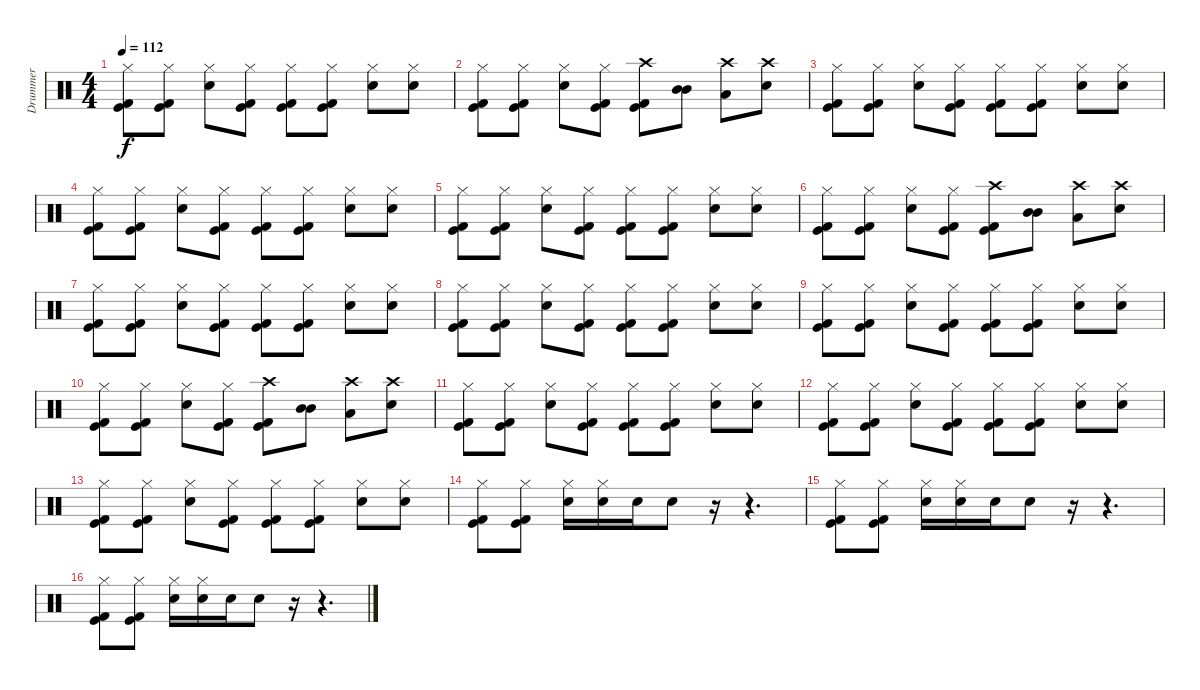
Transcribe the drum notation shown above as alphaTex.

\track ("Drummer" "Drummer") {instrument percussion}
\staff {score}
\articulation defaults
\ts (4 4)
\tempo 112
\clef neutral
\ks c
("Hi-Hat (closed)" "Kick (hit)" "Kick (hit) 2").8{dy f} ("Hi-Hat (closed)" "Kick (hit) 2" "Kick (hit)").8 ("Hi-Hat (closed)" "Snare (hit) 2").8 ("Hi-Hat (closed)" "Kick (hit)" "Kick (hit) 2").8 ("Hi-Hat (closed)" "Kick (hit) 2" "Kick (hit)").8 ("Hi-Hat (closed)" "Kick (hit)" "Kick (hit) 2").8 ("Hi-Hat (closed)" "Snare (hit) 2").8 ("Hi-Hat (closed)" "Snare (hit) 2").8 |
("Hi-Hat (closed)" "Kick (hit)" "Kick (hit) 2").8 ("Hi-Hat (closed)" "Kick (hit) 2" "Kick (hit)").8 ("Hi-Hat (closed)" "Snare (hit) 2").8 ("Hi-Hat (closed)" "Kick (hit)" "Kick (hit) 2").8 ("Crash high (hit)" "Kick (hit) 2" "Kick (hit)").8 ("Mid Tom (hit)" "Mid Tom (hit)").8 ("Crash high (hit)" "Low Tom (hit)").8 ("Crash high (hit)" "Snare (hit) 2").8 |
("Hi-Hat (closed)" "Kick (hit)" "Kick (hit) 2").8 ("Hi-Hat (closed)" "Kick (hit) 2" "Kick (hit)").8 ("Hi-Hat (closed)" "Snare (hit) 2").8 ("Hi-Hat (closed)" "Kick (hit)" "Kick (hit) 2").8 ("Hi-Hat (closed)" "Kick (hit) 2" "Kick (hit)").8 ("Hi-Hat (closed)" "Kick (hit)" "Kick (hit) 2").8 ("Hi-Hat (closed)" "Snare (hit) 2").8 ("Hi-Hat (closed)" "Snare (hit) 2").8 |
("Hi-Hat (closed)" "Kick (hit)" "Kick (hit) 2").8 ("Hi-Hat (closed)" "Kick (hit) 2" "Kick (hit)").8 ("Hi-Hat (closed)" "Snare (hit) 2").8 ("Hi-Hat (closed)" "Kick (hit)" "Kick (hit) 2").8 ("Hi-Hat (closed)" "Kick (hit) 2" "Kick (hit)").8 ("Hi-Hat (closed)" "Kick (hit)" "Kick (hit) 2").8 ("Hi-Hat (closed)" "Snare (hit) 2").8 ("Hi-Hat (closed)" "Snare (hit) 2").8 |
("Hi-Hat (closed)" "Kick (hit)" "Kick (hit) 2").8 ("Hi-Hat (closed)" "Kick (hit) 2" "Kick (hit)").8 ("Hi-Hat (closed)" "Snare (hit) 2").8 ("Hi-Hat (closed)" "Kick (hit)" "Kick (hit) 2").8 ("Hi-Hat (closed)" "Kick (hit) 2" "Kick (hit)").8 ("Hi-Hat (closed)" "Kick (hit)" "Kick (hit) 2").8 ("Hi-Hat (closed)" "Snare (hit) 2").8 ("Hi-Hat (closed)" "Snare (hit) 2").8 |
("Hi-Hat (closed)" "Kick (hit)" "Kick (hit) 2").8 ("Hi-Hat (closed)" "Kick (hit) 2" "Kick (hit)").8 ("Hi-Hat (closed)" "Snare (hit) 2").8 ("Hi-Hat (closed)" "Kick (hit)" "Kick (hit) 2").8 ("Crash high (hit)" "Kick (hit) 2" "Kick (hit)").8 ("Mid Tom (hit)" "Mid Tom (hit)").8 ("Crash high (hit)" "Low Tom (hit)").8 ("Crash high (hit)" "Snare (hit) 2").8 |
("Hi-Hat (closed)" "Kick (hit)" "Kick (hit) 2").8 ("Hi-Hat (closed)" "Kick (hit) 2" "Kick (hit)").8 ("Hi-Hat (closed)" "Snare (hit) 2").8 ("Hi-Hat (closed)" "Kick (hit)" "Kick (hit) 2").8 ("Hi-Hat (closed)" "Kick (hit) 2" "Kick (hit)").8 ("Hi-Hat (closed)" "Kick (hit)" "Kick (hit) 2").8 ("Hi-Hat (closed)" "Snare (hit) 2").8 ("Hi-Hat (closed)" "Snare (hit) 2").8 |
("Hi-Hat (closed)" "Kick (hit)" "Kick (hit) 2").8 ("Hi-Hat (closed)" "Kick (hit) 2" "Kick (hit)").8 ("Hi-Hat (closed)" "Snare (hit) 2").8 ("Hi-Hat (closed)" "Kick (hit)" "Kick (hit) 2").8 ("Hi-Hat (closed)" "Kick (hit) 2" "Kick (hit)").8 ("Hi-Hat (closed)" "Kick (hit)" "Kick (hit) 2").8 ("Hi-Hat (closed)" "Snare (hit) 2").8 ("Hi-Hat (closed)" "Snare (hit) 2").8 |
("Hi-Hat (closed)" "Kick (hit)" "Kick (hit) 2").8 ("Hi-Hat (closed)" "Kick (hit) 2" "Kick (hit)").8 ("Hi-Hat (closed)" "Snare (hit) 2").8 ("Hi-Hat (closed)" "Kick (hit)" "Kick (hit) 2").8 ("Hi-Hat (closed)" "Kick (hit) 2" "Kick (hit)").8 ("Hi-Hat (closed)" "Kick (hit)" "Kick (hit) 2").8 ("Hi-Hat (closed)" "Snare (hit) 2").8 ("Hi-Hat (closed)" "Snare (hit) 2").8 |
("Hi-Hat (closed)" "Kick (hit)" "Kick (hit) 2").8 ("Hi-Hat (closed)" "Kick (hit) 2" "Kick (hit)").8 ("Hi-Hat (closed)" "Snare (hit) 2").8 ("Hi-Hat (closed)" "Kick (hit)" "Kick (hit) 2").8 ("Crash high (hit)" "Kick (hit) 2" "Kick (hit)").8 ("Mid Tom (hit)" "Mid Tom (hit)").8 ("Crash high (hit)" "Low Tom (hit)").8 ("Crash high (hit)" "Snare (hit) 2").8 |
("Hi-Hat (closed)" "Kick (hit)" "Kick (hit) 2").8 ("Hi-Hat (closed)" "Kick (hit) 2" "Kick (hit)").8 ("Hi-Hat (closed)" "Snare (hit) 2").8 ("Hi-Hat (closed)" "Kick (hit)" "Kick (hit) 2").8 ("Hi-Hat (closed)" "Kick (hit) 2" "Kick (hit)").8 ("Hi-Hat (closed)" "Kick (hit)" "Kick (hit) 2").8 ("Hi-Hat (closed)" "Snare (hit) 2").8 ("Hi-Hat (closed)" "Snare (hit) 2").8 |
("Hi-Hat (closed)" "Kick (hit)" "Kick (hit) 2").8 ("Hi-Hat (closed)" "Kick (hit) 2" "Kick (hit)").8 ("Hi-Hat (closed)" "Snare (hit) 2").8 ("Hi-Hat (closed)" "Kick (hit)" "Kick (hit) 2").8 ("Hi-Hat (closed)" "Kick (hit) 2" "Kick (hit)").8 ("Hi-Hat (closed)" "Kick (hit)" "Kick (hit) 2").8 ("Hi-Hat (closed)" "Snare (hit) 2").8 ("Hi-Hat (closed)" "Snare (hit) 2").8 |
("Hi-Hat (closed)" "Kick (hit)" "Kick (hit) 2").8 ("Hi-Hat (closed)" "Kick (hit) 2" "Kick (hit)").8 ("Hi-Hat (closed)" "Snare (hit) 2").8 ("Hi-Hat (closed)" "Kick (hit)" "Kick (hit) 2").8 ("Hi-Hat (closed)" "Kick (hit) 2" "Kick (hit)").8 ("Hi-Hat (closed)" "Kick (hit)" "Kick (hit) 2").8 ("Hi-Hat (closed)" "Snare (hit) 2").8 ("Hi-Hat (closed)" "Snare (hit) 2").8 |
("Hi-Hat (closed)" "Kick (hit)" "Kick (hit) 2").8 ("Hi-Hat (closed)" "Kick (hit) 2" "Kick (hit)").8 ("Hi-Hat (closed)" "Snare (hit) 2").16 ("Hi-Hat (closed)" "Snare (hit) 2").16 "Snare (hit) 2".16 "Snare (hit) 2".8 r.16 r.4{d} |
("Hi-Hat (closed)" "Kick (hit)" "Kick (hit) 2").8 ("Hi-Hat (closed)" "Kick (hit) 2" "Kick (hit)").8 ("Hi-Hat (closed)" "Snare (hit) 2").16 ("Hi-Hat (closed)" "Snare (hit) 2").16 "Snare (hit) 2".16 "Snare (hit) 2".8 r.16 r.4{d} |
("Hi-Hat (closed)" "Kick (hit)" "Kick (hit) 2").8 ("Hi-Hat (closed)" "Kick (hit) 2" "Kick (hit)").8 ("Hi-Hat (closed)" "Snare (hit) 2").16 ("Hi-Hat (closed)" "Snare (hit) 2").16 "Snare (hit) 2".16 "Snare (hit) 2".8 r.16 r.4{d}
